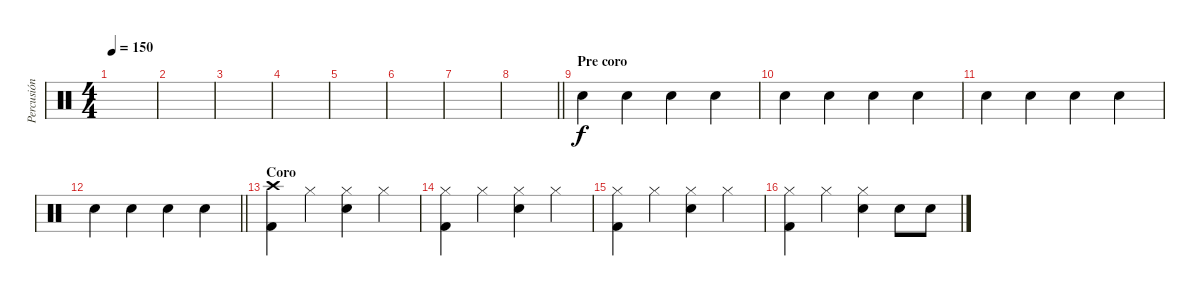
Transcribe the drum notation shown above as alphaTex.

\track ("Percusión" "Percusión") {instrument percussion}
\staff {score}
\articulation defaults
\ts (4 4)
\tempo 150
\clef neutral
\ks c
|
|
|
|
|
|
|
\barLineRight lightlight
|
\section ("" "Pre coro")
"Electric Snare (hit)".4{volume 16} "Electric Snare (hit)".4 "Electric Snare (hit)".4 "Electric Snare (hit)".4 |
"Electric Snare (hit)".4 "Electric Snare (hit)".4 "Electric Snare (hit)".4 "Electric Snare (hit)".4 |
"Electric Snare (hit)".4 "Electric Snare (hit)".4 "Electric Snare (hit)".4 "Electric Snare (hit)".4 |
\barLineRight lightlight "Electric Snare (hit)".4 "Electric Snare (hit)".4 "Electric Snare (hit)".4 "Electric Snare (hit)".4
|
\section ("" "Coro")
("Crash high (hit)" "Kick (hit) 2").4 "Hi-Hat (closed)".4 ("Hi-Hat (closed)" "Electric Snare (hit)").4 "Hi-Hat (closed)".4 |
("Hi-Hat (closed)" "Kick (hit) 2").4 "Hi-Hat (closed)".4 ("Hi-Hat (closed)" "Electric Snare (hit)").4 "Hi-Hat (closed)".4 |
("Hi-Hat (closed)" "Kick (hit) 2").4 "Hi-Hat (closed)".4 ("Hi-Hat (closed)" "Electric Snare (hit)").4 "Hi-Hat (closed)".4 |
("Hi-Hat (closed)" "Kick (hit) 2").4 "Hi-Hat (closed)".4 ("Hi-Hat (closed)" "Electric Snare (hit)").4 "Electric Snare (hit)".8 "Electric Snare (hit)".8
